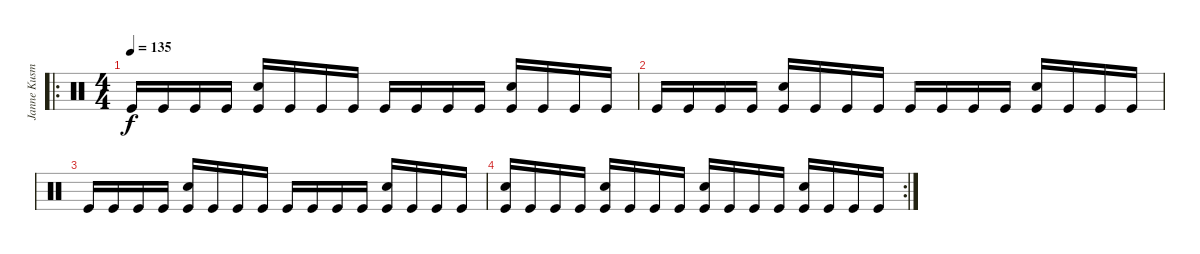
\track ("Janne Kusmin" "Janne Kusm") {instrument percussion}
\staff {score}
\articulation defaults
\ro
\ts (4 4)
\tempo 135
\clef neutral
\ks c "Kick (hit)".16{dy f} "Kick (hit)".16 "Kick (hit)".16 "Kick (hit)".16
("Snare (hit) 2" "Kick (hit)").16 "Kick (hit)".16 "Kick (hit)".16 "Kick (hit)".16 "Kick (hit)".16 "Kick (hit)".16 "Kick (hit)".16 "Kick (hit)".16 ("Snare (hit) 2" "Kick (hit)").16 "Kick (hit)".16 "Kick (hit)".16 "Kick (hit)".16 |
"Kick (hit)".16 "Kick (hit)".16 "Kick (hit)".16 "Kick (hit)".16 ("Snare (hit) 2" "Kick (hit)").16 "Kick (hit)".16 "Kick (hit)".16 "Kick (hit)".16 "Kick (hit)".16 "Kick (hit)".16 "Kick (hit)".16 "Kick (hit)".16 ("Snare (hit) 2" "Kick (hit)").16 "Kick (hit)".16 "Kick (hit)".16 "Kick (hit)".16 |
"Kick (hit)".16 "Kick (hit)".16 "Kick (hit)".16 "Kick (hit)".16 ("Snare (hit) 2" "Kick (hit)").16 "Kick (hit)".16 "Kick (hit)".16 "Kick (hit)".16 "Kick (hit)".16 "Kick (hit)".16 "Kick (hit)".16 "Kick (hit)".16 ("Snare (hit) 2" "Kick (hit)").16 "Kick (hit)".16 "Kick (hit)".16 "Kick (hit)".16 |
\rc 2
("Snare (hit) 2" "Kick (hit)").16 "Kick (hit)".16 "Kick (hit)".16 "Kick (hit)".16 ("Snare (hit) 2" "Kick (hit)").16 "Kick (hit)".16 "Kick (hit)".16 "Kick (hit)".16 ("Snare (hit) 2" "Kick (hit)").16 "Kick (hit)".16 "Kick (hit)".16 "Kick (hit)".16 ("Snare (hit) 2" "Kick (hit)").16 "Kick (hit)".16 "Kick (hit)".16 "Kick (hit)".16
